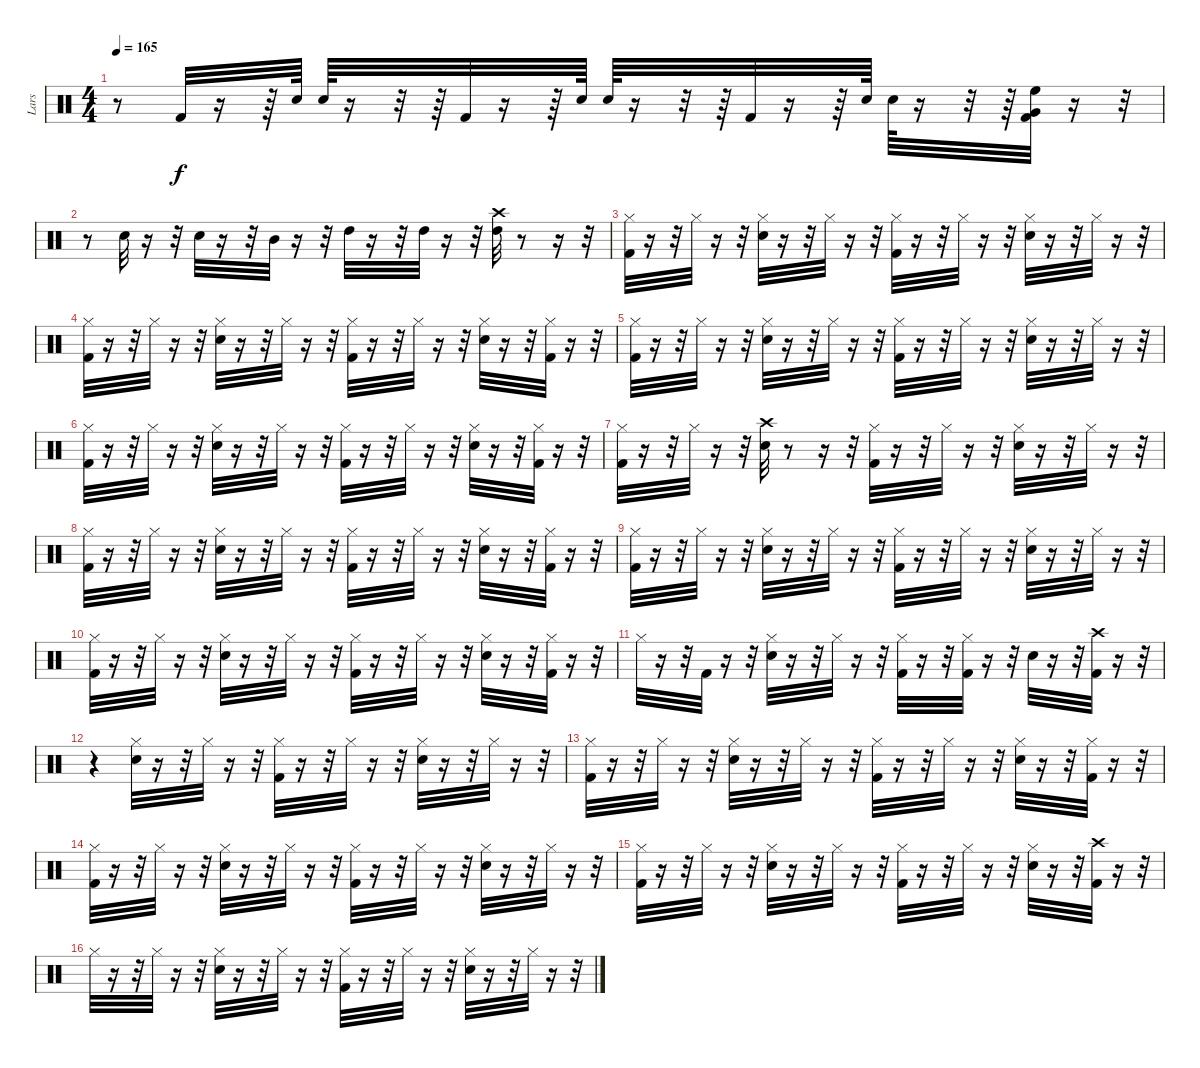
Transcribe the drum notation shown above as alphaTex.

\track ("Lars" "Lars") {instrument percussion}
\staff {score}
\articulation defaults
\ts (4 4)
\tempo 165
\clef neutral
\ks c
r.8{dy f} "Kick (hit) 2".32 r.16 r.64 "Snare (hit) 2".64 "Snare (hit) 2".64 r.16 r.32 r.64 "Kick (hit) 2".32 r.16 r.64 "Snare (hit) 2".64 "Snare (hit) 2".64 r.16 r.32 r.64 "Kick (hit) 2".32 r.16 r.64 "Snare (hit) 2".64 "Snare (hit) 2".64 r.16 r.32 r.64 ("Very Low Tom (hit)" "High Floor Tom (hit)" "Kick (hit) 2").32 r.16 r.32 |
r.8 "Snare (hit) 2".32 r.16 r.32 "Snare (hit) 2".32 r.16 r.32 "Mid Tom (hit)".32 r.16 r.32 "High Tom (hit)".32 r.16 r.32 "High Tom (hit)".32 r.16 r.32 ("Crash high (hit)" "High Tom (hit)").32 r.8 r.16 r.32 |
("Hi-Hat (closed)" "Kick (hit) 2").32 r.16 r.32 "Hi-Hat (closed)".32 r.16 r.32 ("Snare (hit) 2" "Hi-Hat (closed)").32 r.16 r.32 "Hi-Hat (closed)".32 r.16 r.32 ("Hi-Hat (closed)" "Kick (hit) 2").32 r.16 r.32 "Hi-Hat (closed)".32 r.16 r.32 ("Snare (hit) 2" "Hi-Hat (closed)").32 r.16 r.32 "Hi-Hat (closed)".32 r.16 r.32 |
("Hi-Hat (closed)" "Kick (hit) 2").32 r.16 r.32 "Hi-Hat (closed)".32 r.16 r.32 ("Snare (hit) 2" "Hi-Hat (closed)").32 r.16 r.32 "Hi-Hat (closed)".32 r.16 r.32 ("Hi-Hat (closed)" "Kick (hit) 2").32 r.16 r.32 "Hi-Hat (closed)".32 r.16 r.32 ("Snare (hit) 2" "Hi-Hat (closed)").32 r.16 r.32 ("Kick (hit) 2" "Hi-Hat (closed)").32 r.16 r.32 |
("Hi-Hat (closed)" "Kick (hit) 2").32 r.16 r.32 "Hi-Hat (closed)".32 r.16 r.32 ("Snare (hit) 2" "Hi-Hat (closed)").32 r.16 r.32 "Hi-Hat (closed)".32 r.16 r.32 ("Hi-Hat (closed)" "Kick (hit) 2").32 r.16 r.32 "Hi-Hat (closed)".32 r.16 r.32 ("Snare (hit) 2" "Hi-Hat (closed)").32 r.16 r.32 "Hi-Hat (closed)".32 r.16 r.32 |
("Hi-Hat (closed)" "Kick (hit) 2").32 r.16 r.32 "Hi-Hat (closed)".32 r.16 r.32 ("Snare (hit) 2" "Hi-Hat (closed)").32 r.16 r.32 "Hi-Hat (closed)".32 r.16 r.32 ("Hi-Hat (closed)" "Kick (hit) 2").32 r.16 r.32 "Hi-Hat (closed)".32 r.16 r.32 ("Snare (hit) 2" "Hi-Hat (closed)").32 r.16 r.32 ("Kick (hit) 2" "Hi-Hat (closed)").32 r.16 r.32 |
("Kick (hit) 2" "Hi-Hat (closed)").32 r.16 r.32 "Hi-Hat (closed)".32 r.16 r.32 ("Crash high (hit)" "Snare (hit) 2").32 r.8 r.16 r.32 ("Hi-Hat (closed)" "Kick (hit) 2").32 r.16 r.32 "Hi-Hat (closed)".32 r.16 r.32 ("Snare (hit) 2" "Hi-Hat (closed)").32 r.16 r.32 "Hi-Hat (closed)".32 r.16 r.32 |
("Hi-Hat (closed)" "Kick (hit) 2").32 r.16 r.32 "Hi-Hat (closed)".32 r.16 r.32 ("Snare (hit) 2" "Hi-Hat (closed)").32 r.16 r.32 "Hi-Hat (closed)".32 r.16 r.32 ("Hi-Hat (closed)" "Kick (hit) 2").32 r.16 r.32 "Hi-Hat (closed)".32 r.16 r.32 ("Snare (hit) 2" "Hi-Hat (closed)").32 r.16 r.32 ("Kick (hit) 2" "Hi-Hat (closed)").32 r.16 r.32 |
("Hi-Hat (closed)" "Kick (hit) 2").32 r.16 r.32 "Hi-Hat (closed)".32 r.16 r.32 ("Snare (hit) 2" "Hi-Hat (closed)").32 r.16 r.32 "Hi-Hat (closed)".32 r.16 r.32 ("Hi-Hat (closed)" "Kick (hit) 2").32 r.16 r.32 "Hi-Hat (closed)".32 r.16 r.32 ("Snare (hit) 2" "Hi-Hat (closed)").32 r.16 r.32 "Hi-Hat (closed)".32 r.16 r.32 |
("Hi-Hat (closed)" "Kick (hit) 2").32 r.16 r.32 "Hi-Hat (closed)".32 r.16 r.32 ("Snare (hit) 2" "Hi-Hat (closed)").32 r.16 r.32 "Hi-Hat (closed)".32 r.16 r.32 ("Hi-Hat (closed)" "Kick (hit) 2").32 r.16 r.32 "Hi-Hat (closed)".32 r.16 r.32 ("Snare (hit) 2" "Hi-Hat (closed)").32 r.16 r.32 ("Kick (hit) 2" "Hi-Hat (closed)").32 r.16 r.32 |
"Hi-Hat (closed)".32 r.16 r.32 "Kick (hit) 2".32 r.16 r.32 ("Snare (hit) 2" "Hi-Hat (closed)").32 r.16 r.32 "Hi-Hat (closed)".32 r.16 r.32 ("Hi-Hat (closed)" "Kick (hit) 2").32 r.16 r.32 ("Hi-Hat (closed)" "Kick (hit) 2").32 r.16 r.32 "Snare (hit) 2".32 r.16 r.32 ("Crash high (hit)" "Kick (hit) 2").32 r.16 r.32 |
r.4 ("Snare (hit) 2" "Hi-Hat (closed)").32 r.16 r.32 "Hi-Hat (closed)".32 r.16 r.32 ("Hi-Hat (closed)" "Kick (hit) 2").32 r.16 r.32 "Hi-Hat (closed)".32 r.16 r.32 ("Snare (hit) 2" "Hi-Hat (closed)").32 r.16 r.32 "Hi-Hat (closed)".32 r.16 r.32 |
("Hi-Hat (closed)" "Kick (hit) 2").32 r.16 r.32 "Hi-Hat (closed)".32 r.16 r.32 ("Snare (hit) 2" "Hi-Hat (closed)").32 r.16 r.32 "Hi-Hat (closed)".32 r.16 r.32 ("Hi-Hat (closed)" "Kick (hit) 2").32 r.16 r.32 "Hi-Hat (closed)".32 r.16 r.32 ("Snare (hit) 2" "Hi-Hat (closed)").32 r.16 r.32 ("Kick (hit) 2" "Hi-Hat (closed)").32 r.16 r.32 |
("Hi-Hat (closed)" "Kick (hit) 2").32 r.16 r.32 "Hi-Hat (closed)".32 r.16 r.32 ("Snare (hit) 2" "Hi-Hat (closed)").32 r.16 r.32 "Hi-Hat (closed)".32 r.16 r.32 ("Hi-Hat (closed)" "Kick (hit) 2").32 r.16 r.32 "Hi-Hat (closed)".32 r.16 r.32 ("Snare (hit) 2" "Hi-Hat (closed)").32 r.16 r.32 "Hi-Hat (closed)".32 r.16 r.32 |
("Hi-Hat (closed)" "Kick (hit) 2").32 r.16 r.32 "Hi-Hat (closed)".32 r.16 r.32 ("Snare (hit) 2" "Hi-Hat (closed)").32 r.16 r.32 "Hi-Hat (closed)".32 r.16 r.32 ("Hi-Hat (closed)" "Kick (hit) 2").32 r.16 r.32 "Hi-Hat (closed)".32 r.16 r.32 ("Snare (hit) 2" "Hi-Hat (closed)").32 r.16 r.32 ("Crash high (hit)" "Kick (hit) 2").32 r.16 r.32 |
"Hi-Hat (closed)".32 r.16 r.32 "Hi-Hat (closed)".32 r.16 r.32 ("Snare (hit) 2" "Hi-Hat (closed)").32 r.16 r.32 "Hi-Hat (closed)".32 r.16 r.32 ("Hi-Hat (closed)" "Kick (hit) 2").32 r.16 r.32 "Hi-Hat (closed)".32 r.16 r.32 ("Snare (hit) 2" "Hi-Hat (closed)").32 r.16 r.32 "Hi-Hat (closed)".32 r.16 r.32
